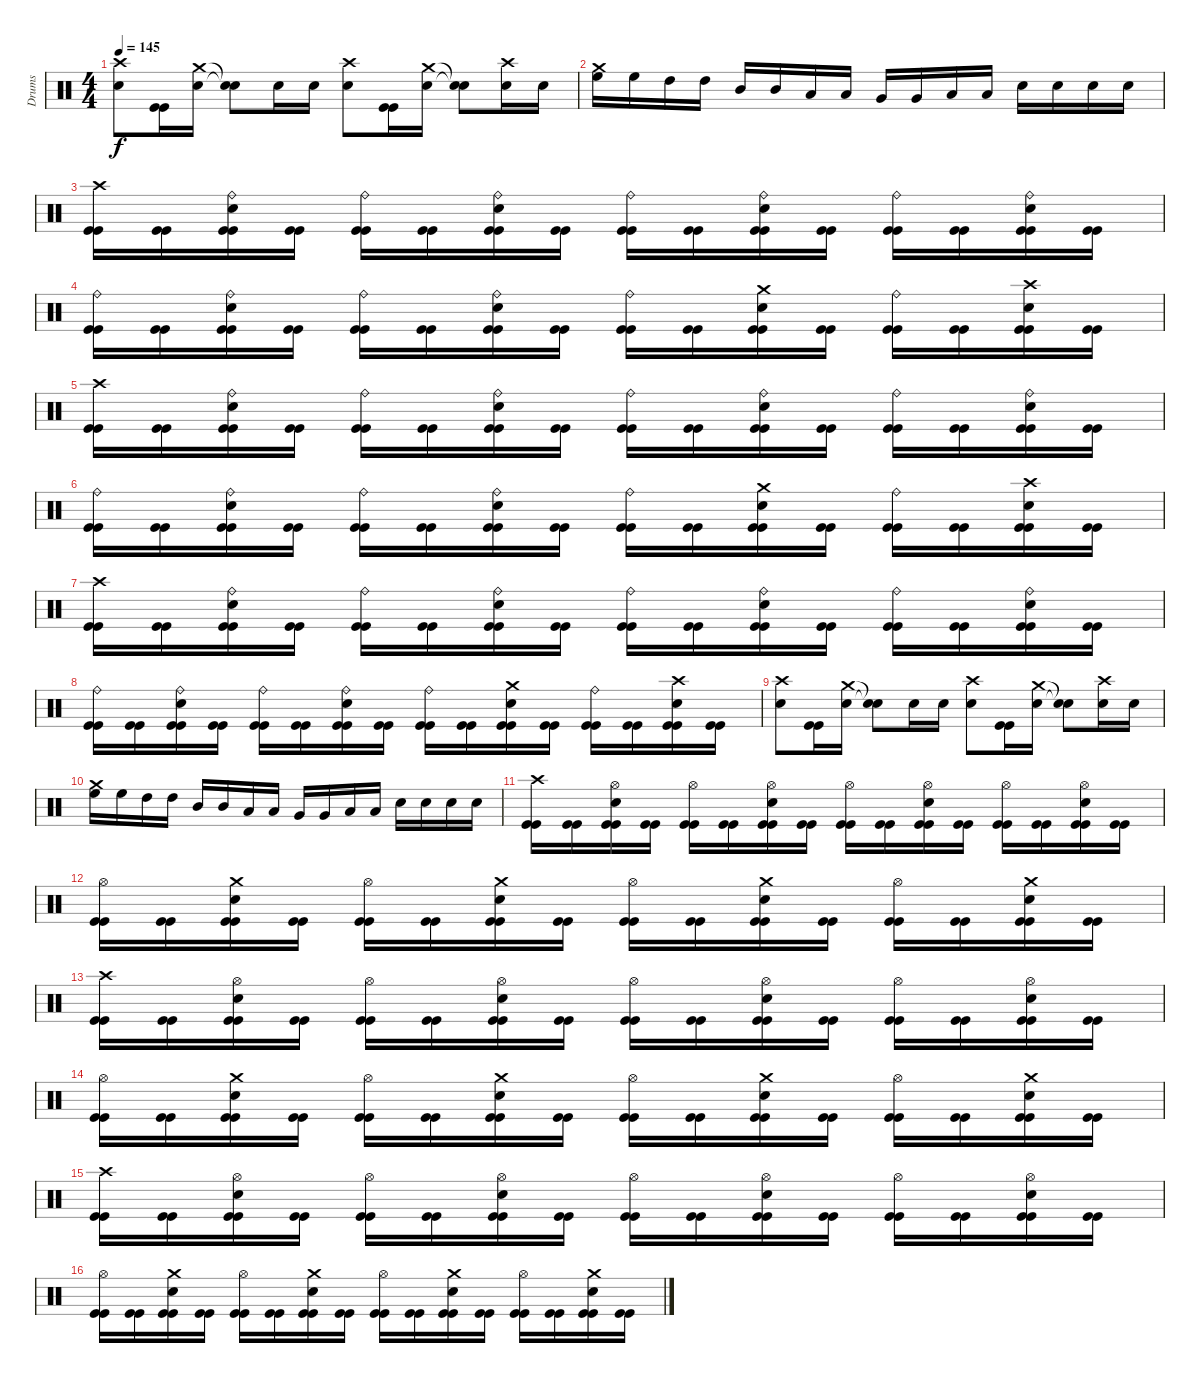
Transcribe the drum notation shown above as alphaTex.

\track ("Drums" "Drums") {instrument percussion}
\staff {score}
\articulation defaults
\ts (4 4)
\tempo 145
\clef neutral
\ks c
("Crash high (hit)" "Snare (hit) 2").8{dy f} ("Kick (hit)" "Kick (hit)").16 ("Crash medium (hit)" "Snare (hit) 2").16 ("Snare (hit)"{t} "Snare (hit)"{t}).8 "Snare (hit) 2".16 "Snare (hit) 2".16 ("Crash high (hit)" "Snare (hit) 2").8 ("Kick (hit)" "Kick (hit)").16 ("Crash medium (hit)" "Snare (hit) 2").16 ("Snare (hit)"{t} "Snare (hit)"{t}).8 ("Snare (hit) 2" "Crash high (hit)").16 "Snare (hit) 2".16 |
("High Floor Tom (hit)" "Crash medium (hit)").16 "High Floor Tom (hit)".16 "High Tom (hit)".16 "High Tom (hit)".16 "Mid Tom (hit)".16 "Mid Tom (hit)".16 "Low Tom (hit)".16 "Low Tom (hit)".16 "Very Low Tom (hit)".16 "Very Low Tom (hit)".16 "Low Floor Tom (hit)".16 "Low Floor Tom (hit)".16 "Snare (hit) 2".16 "Snare (hit) 2".16 "Snare (hit) 2".16 "Snare (hit) 2".16 |
("Kick (hit)" "Kick (hit)" "Crash high (hit)").16 ("Kick (hit)" "Kick (hit)").16 ("Kick (hit)" "Kick (hit)" "Snare (hit) 2" "Ride (bell)").16 ("Kick (hit)" "Kick (hit)").16 ("Kick (hit)" "Kick (hit)" "Ride (bell)").16 ("Kick (hit)" "Kick (hit)").16 ("Kick (hit)" "Kick (hit)" "Snare (hit) 2" "Ride (bell)").16 ("Kick (hit)" "Kick (hit)").16 ("Kick (hit)" "Kick (hit)" "Ride (bell)").16 ("Kick (hit)" "Kick (hit)").16 ("Kick (hit)" "Kick (hit)" "Snare (hit) 2" "Ride (bell)").16 ("Kick (hit)" "Kick (hit)").16 ("Kick (hit)" "Kick (hit)" "Ride (bell)").16 ("Kick (hit)" "Kick (hit)").16 ("Kick (hit)" "Kick (hit)" "Snare (hit) 2" "Ride (bell)").16 ("Kick (hit)" "Kick (hit)").16 |
("Kick (hit)" "Kick (hit)" "Ride (bell)").16 ("Kick (hit)" "Kick (hit)").16 ("Kick (hit)" "Kick (hit)" "Snare (hit) 2" "Ride (bell)").16 ("Kick (hit)" "Kick (hit)").16 ("Kick (hit)" "Kick (hit)" "Ride (bell)").16 ("Kick (hit)" "Kick (hit)").16 ("Kick (hit)" "Kick (hit)" "Snare (hit) 2" "Ride (bell)").16 ("Kick (hit)" "Kick (hit)").16 ("Kick (hit)" "Kick (hit)" "Ride (bell)").16 ("Kick (hit)" "Kick (hit)").16 ("Kick (hit)" "Kick (hit)" "Snare (hit) 2" "Crash medium (hit)").16 ("Kick (hit)" "Kick (hit)").16 ("Kick (hit)" "Kick (hit)" "Ride (bell)").16 ("Kick (hit)" "Kick (hit)").16 ("Kick (hit)" "Kick (hit)" "Snare (hit) 2" "Crash high (hit)").16 ("Kick (hit)" "Kick (hit)").16 |
("Kick (hit)" "Kick (hit)" "Crash high (hit)").16 ("Kick (hit)" "Kick (hit)").16 ("Kick (hit)" "Kick (hit)" "Snare (hit) 2" "Ride (bell)").16 ("Kick (hit)" "Kick (hit)").16 ("Kick (hit)" "Kick (hit)" "Ride (bell)").16 ("Kick (hit)" "Kick (hit)").16 ("Kick (hit)" "Kick (hit)" "Snare (hit) 2" "Ride (bell)").16 ("Kick (hit)" "Kick (hit)").16 ("Kick (hit)" "Kick (hit)" "Ride (bell)").16 ("Kick (hit)" "Kick (hit)").16 ("Kick (hit)" "Kick (hit)" "Snare (hit) 2" "Ride (bell)").16 ("Kick (hit)" "Kick (hit)").16 ("Kick (hit)" "Kick (hit)" "Ride (bell)").16 ("Kick (hit)" "Kick (hit)").16 ("Kick (hit)" "Kick (hit)" "Snare (hit) 2" "Ride (bell)").16 ("Kick (hit)" "Kick (hit)").16 |
("Kick (hit)" "Kick (hit)" "Ride (bell)").16 ("Kick (hit)" "Kick (hit)").16 ("Kick (hit)" "Kick (hit)" "Snare (hit) 2" "Ride (bell)").16 ("Kick (hit)" "Kick (hit)").16 ("Kick (hit)" "Kick (hit)" "Ride (bell)").16 ("Kick (hit)" "Kick (hit)").16 ("Kick (hit)" "Kick (hit)" "Snare (hit) 2" "Ride (bell)").16 ("Kick (hit)" "Kick (hit)").16 ("Kick (hit)" "Kick (hit)" "Ride (bell)").16 ("Kick (hit)" "Kick (hit)").16 ("Kick (hit)" "Kick (hit)" "Snare (hit) 2" "Crash medium (hit)").16 ("Kick (hit)" "Kick (hit)").16 ("Kick (hit)" "Kick (hit)" "Ride (bell)").16 ("Kick (hit)" "Kick (hit)").16 ("Kick (hit)" "Kick (hit)" "Snare (hit) 2" "Crash high (hit)").16 ("Kick (hit)" "Kick (hit)").16 |
("Kick (hit)" "Kick (hit)" "Crash high (hit)").16 ("Kick (hit)" "Kick (hit)").16 ("Kick (hit)" "Kick (hit)" "Snare (hit) 2" "Ride (bell)").16 ("Kick (hit)" "Kick (hit)").16 ("Kick (hit)" "Kick (hit)" "Ride (bell)").16 ("Kick (hit)" "Kick (hit)").16 ("Kick (hit)" "Kick (hit)" "Snare (hit) 2" "Ride (bell)").16 ("Kick (hit)" "Kick (hit)").16 ("Kick (hit)" "Kick (hit)" "Ride (bell)").16 ("Kick (hit)" "Kick (hit)").16 ("Kick (hit)" "Kick (hit)" "Snare (hit) 2" "Ride (bell)").16 ("Kick (hit)" "Kick (hit)").16 ("Kick (hit)" "Kick (hit)" "Ride (bell)").16 ("Kick (hit)" "Kick (hit)").16 ("Kick (hit)" "Kick (hit)" "Snare (hit) 2" "Ride (bell)").16 ("Kick (hit)" "Kick (hit)").16 |
("Kick (hit)" "Kick (hit)" "Ride (bell)").16 ("Kick (hit)" "Kick (hit)").16 ("Kick (hit)" "Kick (hit)" "Snare (hit) 2" "Ride (bell)").16 ("Kick (hit)" "Kick (hit)").16 ("Kick (hit)" "Kick (hit)" "Ride (bell)").16 ("Kick (hit)" "Kick (hit)").16 ("Kick (hit)" "Kick (hit)" "Snare (hit) 2" "Ride (bell)").16 ("Kick (hit)" "Kick (hit)").16 ("Kick (hit)" "Kick (hit)" "Ride (bell)").16 ("Kick (hit)" "Kick (hit)").16 ("Kick (hit)" "Kick (hit)" "Snare (hit) 2" "Crash medium (hit)").16 ("Kick (hit)" "Kick (hit)").16 ("Kick (hit)" "Kick (hit)" "Ride (bell)").16 ("Kick (hit)" "Kick (hit)").16 ("Kick (hit)" "Kick (hit)" "Snare (hit) 2" "Crash high (hit)").16 ("Kick (hit)" "Kick (hit)").16 |
("Crash high (hit)" "Snare (hit) 2").8 ("Kick (hit)" "Kick (hit)").16 ("Crash medium (hit)" "Snare (hit) 2").16 ("Snare (hit)"{t} "Snare (hit)"{t}).8 "Snare (hit) 2".16 "Snare (hit) 2".16 ("Crash high (hit)" "Snare (hit) 2").8 ("Kick (hit)" "Kick (hit)").16 ("Crash medium (hit)" "Snare (hit) 2").16 ("Snare (hit)"{t} "Snare (hit)"{t}).8 ("Snare (hit) 2" "Crash high (hit)").16 "Snare (hit) 2".16 |
("High Floor Tom (hit)" "Crash medium (hit)").16 "High Floor Tom (hit)".16 "High Tom (hit)".16 "High Tom (hit)".16 "Mid Tom (hit)".16 "Mid Tom (hit)".16 "Low Tom (hit)".16 "Low Tom (hit)".16 "Very Low Tom (hit)".16 "Very Low Tom (hit)".16 "Low Floor Tom (hit)".16 "Low Floor Tom (hit)".16 "Snare (hit) 2".16 "Snare (hit) 2".16 "Snare (hit) 2".16 "Snare (hit) 2".16 |
("Kick (hit)" "Kick (hit)" "Crash high (hit)").16 ("Kick (hit)" "Kick (hit)").16 ("Kick (hit)" "Kick (hit)" "Snare (hit) 2" "Hi-Hat (open)").16 ("Kick (hit)" "Kick (hit)").16 ("Kick (hit)" "Kick (hit)" "Hi-Hat (open)").16 ("Kick (hit)" "Kick (hit)").16 ("Kick (hit)" "Kick (hit)" "Snare (hit) 2" "Hi-Hat (open)").16 ("Kick (hit)" "Kick (hit)").16 ("Kick (hit)" "Kick (hit)" "Hi-Hat (open)").16 ("Kick (hit)" "Kick (hit)").16 ("Kick (hit)" "Kick (hit)" "Snare (hit) 2" "Hi-Hat (open)").16 ("Kick (hit)" "Kick (hit)").16 ("Kick (hit)" "Kick (hit)" "Hi-Hat (open)").16 ("Kick (hit)" "Kick (hit)").16 ("Kick (hit)" "Kick (hit)" "Snare (hit) 2" "Hi-Hat (open)").16 ("Kick (hit)" "Kick (hit)").16 |
("Kick (hit)" "Kick (hit)" "Hi-Hat (open)").16 ("Kick (hit)" "Kick (hit)").16 ("Kick (hit)" "Kick (hit)" "Snare (hit) 2" "Crash medium (hit)").16 ("Kick (hit)" "Kick (hit)").16 ("Kick (hit)" "Kick (hit)" "Hi-Hat (open)").16 ("Kick (hit)" "Kick (hit)").16 ("Kick (hit)" "Kick (hit)" "Snare (hit) 2" "Crash medium (hit)").16 ("Kick (hit)" "Kick (hit)").16 ("Kick (hit)" "Kick (hit)" "Hi-Hat (open)").16 ("Kick (hit)" "Kick (hit)").16 ("Kick (hit)" "Kick (hit)" "Snare (hit) 2" "Crash medium (hit)").16 ("Kick (hit)" "Kick (hit)").16 ("Kick (hit)" "Kick (hit)" "Hi-Hat (open)").16 ("Kick (hit)" "Kick (hit)").16 ("Kick (hit)" "Kick (hit)" "Snare (hit) 2" "Crash medium (hit)").16 ("Kick (hit)" "Kick (hit)").16 |
("Kick (hit)" "Kick (hit)" "Crash high (hit)").16 ("Kick (hit)" "Kick (hit)").16 ("Kick (hit)" "Kick (hit)" "Snare (hit) 2" "Hi-Hat (open)").16 ("Kick (hit)" "Kick (hit)").16 ("Kick (hit)" "Kick (hit)" "Hi-Hat (open)").16 ("Kick (hit)" "Kick (hit)").16 ("Kick (hit)" "Kick (hit)" "Snare (hit) 2" "Hi-Hat (open)").16 ("Kick (hit)" "Kick (hit)").16 ("Kick (hit)" "Kick (hit)" "Hi-Hat (open)").16 ("Kick (hit)" "Kick (hit)").16 ("Kick (hit)" "Kick (hit)" "Snare (hit) 2" "Hi-Hat (open)").16 ("Kick (hit)" "Kick (hit)").16 ("Kick (hit)" "Kick (hit)" "Hi-Hat (open)").16 ("Kick (hit)" "Kick (hit)").16 ("Kick (hit)" "Kick (hit)" "Snare (hit) 2" "Hi-Hat (open)").16 ("Kick (hit)" "Kick (hit)").16 |
("Kick (hit)" "Kick (hit)" "Hi-Hat (open)").16 ("Kick (hit)" "Kick (hit)").16 ("Kick (hit)" "Kick (hit)" "Snare (hit) 2" "Crash medium (hit)").16 ("Kick (hit)" "Kick (hit)").16 ("Kick (hit)" "Kick (hit)" "Hi-Hat (open)").16 ("Kick (hit)" "Kick (hit)").16 ("Kick (hit)" "Kick (hit)" "Snare (hit) 2" "Crash medium (hit)").16 ("Kick (hit)" "Kick (hit)").16 ("Kick (hit)" "Kick (hit)" "Hi-Hat (open)").16 ("Kick (hit)" "Kick (hit)").16 ("Kick (hit)" "Kick (hit)" "Snare (hit) 2" "Crash medium (hit)").16 ("Kick (hit)" "Kick (hit)").16 ("Kick (hit)" "Kick (hit)" "Hi-Hat (open)").16 ("Kick (hit)" "Kick (hit)").16 ("Kick (hit)" "Kick (hit)" "Snare (hit) 2" "Crash medium (hit)").16 ("Kick (hit)" "Kick (hit)").16 |
("Kick (hit)" "Kick (hit)" "Crash high (hit)").16 ("Kick (hit)" "Kick (hit)").16 ("Kick (hit)" "Kick (hit)" "Snare (hit) 2" "Hi-Hat (open)").16 ("Kick (hit)" "Kick (hit)").16 ("Kick (hit)" "Kick (hit)" "Hi-Hat (open)").16 ("Kick (hit)" "Kick (hit)").16 ("Kick (hit)" "Kick (hit)" "Snare (hit) 2" "Hi-Hat (open)").16 ("Kick (hit)" "Kick (hit)").16 ("Kick (hit)" "Kick (hit)" "Hi-Hat (open)").16 ("Kick (hit)" "Kick (hit)").16 ("Kick (hit)" "Kick (hit)" "Snare (hit) 2" "Hi-Hat (open)").16 ("Kick (hit)" "Kick (hit)").16 ("Kick (hit)" "Kick (hit)" "Hi-Hat (open)").16 ("Kick (hit)" "Kick (hit)").16 ("Kick (hit)" "Kick (hit)" "Snare (hit) 2" "Hi-Hat (open)").16 ("Kick (hit)" "Kick (hit)").16 |
("Kick (hit)" "Kick (hit)" "Hi-Hat (open)").16 ("Kick (hit)" "Kick (hit)").16 ("Kick (hit)" "Kick (hit)" "Snare (hit) 2" "Crash medium (hit)").16 ("Kick (hit)" "Kick (hit)").16 ("Kick (hit)" "Kick (hit)" "Hi-Hat (open)").16 ("Kick (hit)" "Kick (hit)").16 ("Kick (hit)" "Kick (hit)" "Snare (hit) 2" "Crash medium (hit)").16 ("Kick (hit)" "Kick (hit)").16 ("Kick (hit)" "Kick (hit)" "Hi-Hat (open)").16 ("Kick (hit)" "Kick (hit)").16 ("Kick (hit)" "Kick (hit)" "Snare (hit) 2" "Crash medium (hit)").16 ("Kick (hit)" "Kick (hit)").16 ("Kick (hit)" "Kick (hit)" "Hi-Hat (open)").16 ("Kick (hit)" "Kick (hit)").16 ("Kick (hit)" "Kick (hit)" "Snare (hit) 2" "Crash medium (hit)").16 ("Kick (hit)" "Kick (hit)").16
